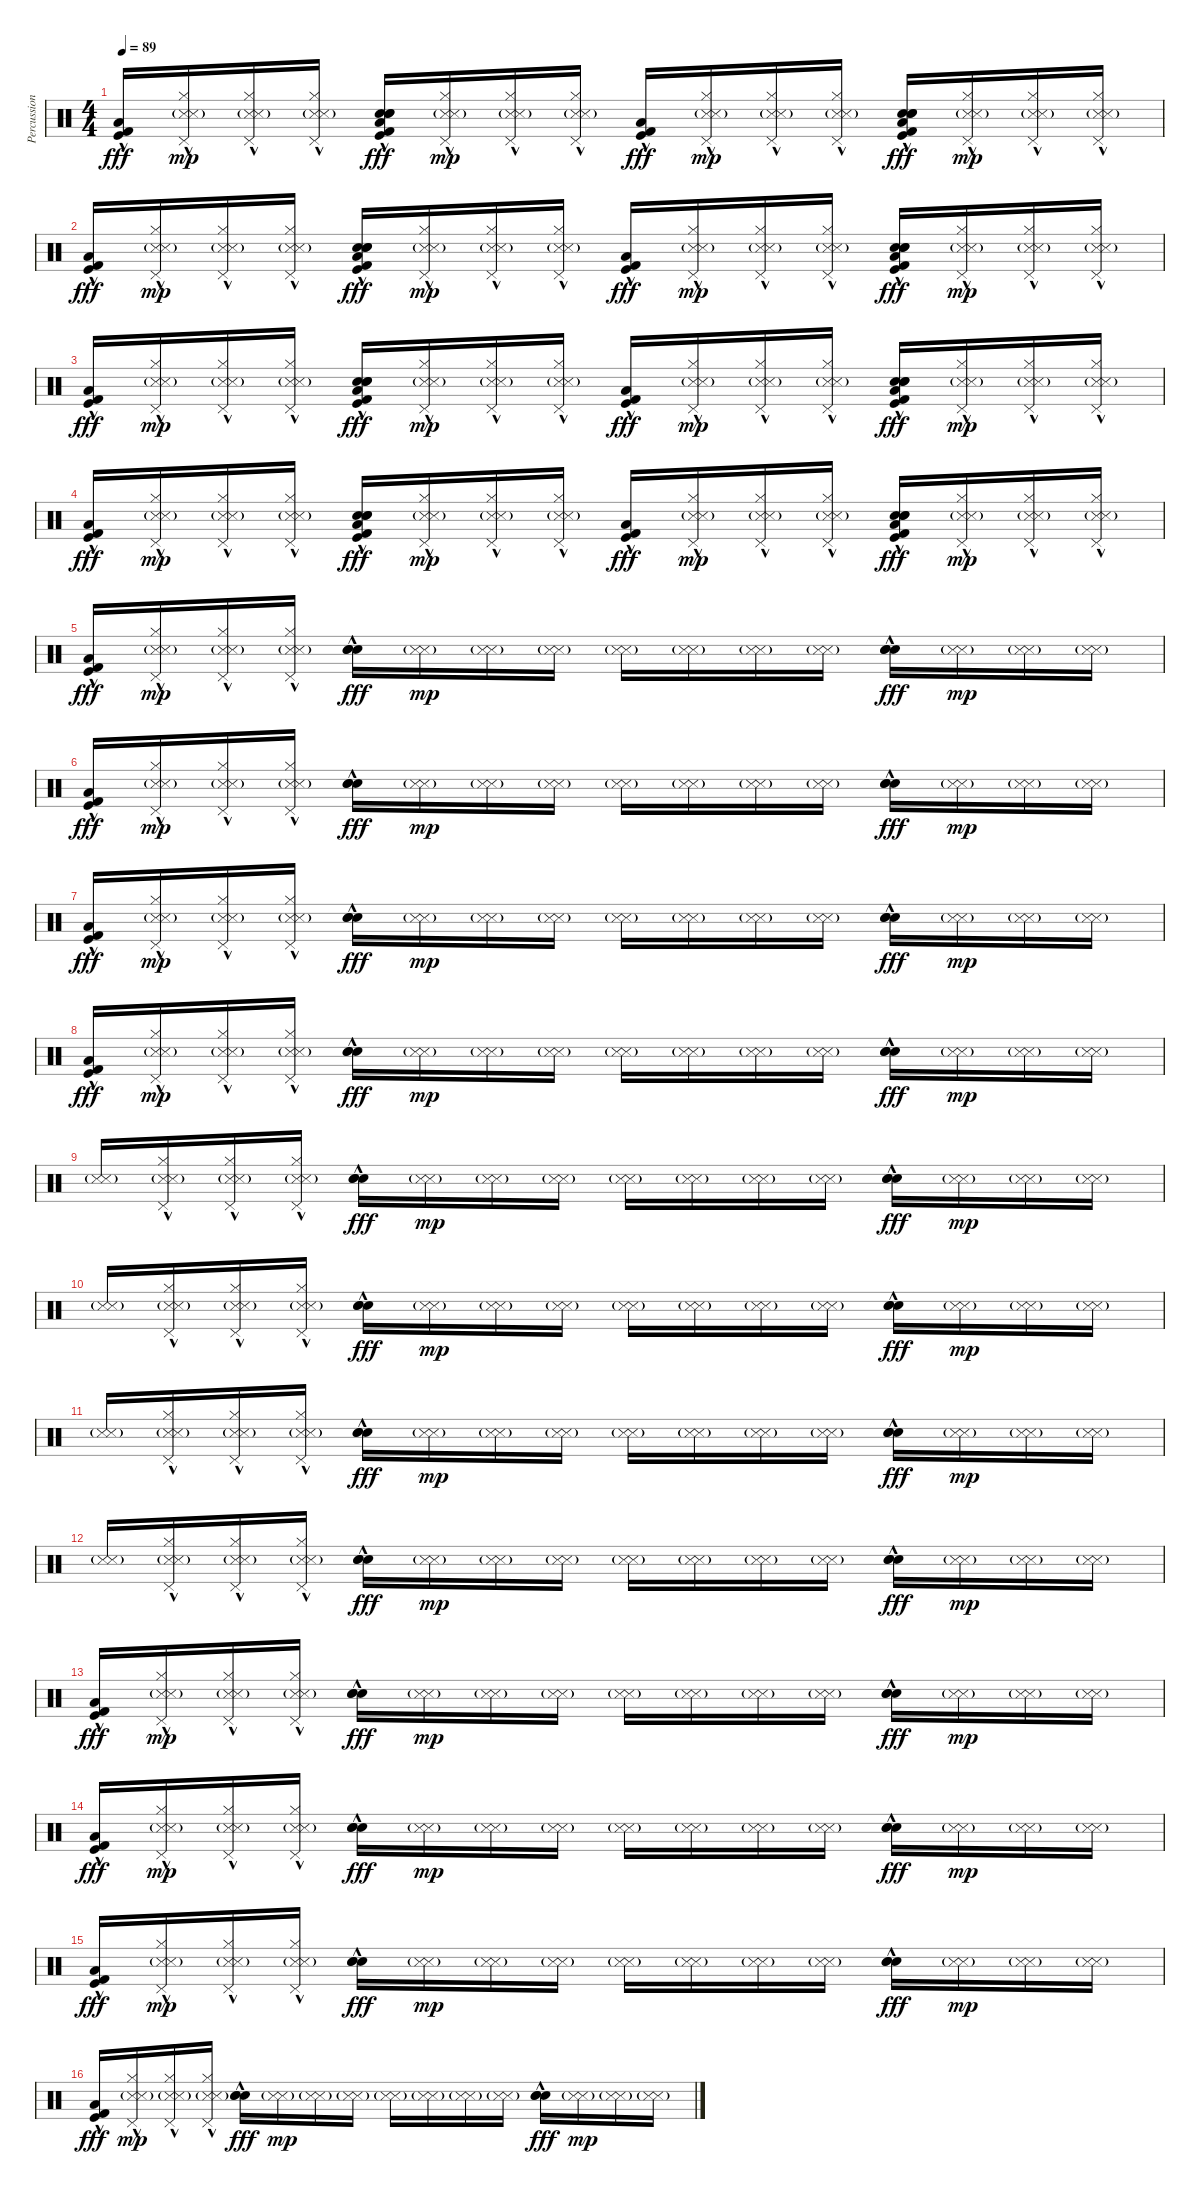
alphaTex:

\track ("Percussion" "Percussion") {instrument percussion}
\staff {score}
\articulation defaults
\ts (4 4)
\tempo 89
\clef neutral
\ks c
("Kick (hit) 2"{hac} "Kick (hit)"{hac} "Low Floor Tom (hit)"{hac}).16{dy fff} ("Pedal Hi-Hat (hit)"{hac} "Hi-Hat (closed)" "Snare (side stick) 3"{g} "Metronome (hit)"{g}).16{dy mp} ("Pedal Hi-Hat (hit)"{hac} "Hi-Hat (closed)" "Snare (side stick) 3"{g} "Metronome (hit)"{g}).16 ("Pedal Hi-Hat (hit)"{hac} "Hi-Hat (closed)" "Snare (side stick) 3"{g} "Metronome (hit)"{g}).16 ("Hand Clap (hit)"{hac} "Hand Clap (hit)"{hac} "Hand Clap (hit)"{hac} "Low Floor Tom (hit)"{hac} "Kick (hit)"{hac} "Kick (hit) 2"{hac}).16{dy fff} ("Pedal Hi-Hat (hit)"{hac} "Hi-Hat (closed)"{hac} "Snare (side stick) 3"{g} "Metronome (hit)"{g}).16{dy mp} ("Pedal Hi-Hat (hit)"{hac} "Hi-Hat (closed)"{hac} "Snare (side stick) 3"{g} "Metronome (hit)"{g}).16 ("Pedal Hi-Hat (hit)"{hac} "Hi-Hat (closed)"{hac} "Snare (side stick) 3"{g} "Metronome (hit)"{g}).16 ("Kick (hit) 2"{hac} "Kick (hit)"{hac} "Low Floor Tom (hit)"{hac}).16{dy fff} ("Pedal Hi-Hat (hit)"{hac} "Hi-Hat (closed)" "Snare (side stick) 3"{g} "Metronome (hit)"{g}).16{dy mp} ("Pedal Hi-Hat (hit)"{hac} "Hi-Hat (closed)" "Snare (side stick) 3"{g} "Metronome (hit)"{g}).16 ("Pedal Hi-Hat (hit)"{hac} "Hi-Hat (closed)" "Snare (side stick) 3"{g} "Metronome (hit)"{g}).16 ("Hand Clap (hit)"{hac} "Hand Clap (hit)"{hac} "Hand Clap (hit)"{hac} "Low Floor Tom (hit)"{hac} "Kick (hit)"{hac} "Kick (hit) 2"{hac}).16{dy fff} ("Pedal Hi-Hat (hit)"{hac} "Hi-Hat (closed)"{hac} "Snare (side stick) 3"{g} "Metronome (hit)"{g}).16{dy mp} ("Pedal Hi-Hat (hit)"{hac} "Hi-Hat (closed)"{hac} "Snare (side stick) 3"{g} "Metronome (hit)"{g}).16 ("Pedal Hi-Hat (hit)"{hac} "Hi-Hat (closed)"{hac} "Snare (side stick) 3"{g} "Metronome (hit)"{g}).16 |
("Kick (hit) 2"{hac} "Kick (hit)"{hac} "Low Floor Tom (hit)"{hac}).16{dy fff} ("Pedal Hi-Hat (hit)"{hac} "Hi-Hat (closed)" "Snare (side stick) 3"{g} "Metronome (hit)"{g}).16{dy mp} ("Pedal Hi-Hat (hit)"{hac} "Hi-Hat (closed)" "Snare (side stick) 3"{g} "Metronome (hit)"{g}).16 ("Pedal Hi-Hat (hit)"{hac} "Hi-Hat (closed)" "Snare (side stick) 3"{g} "Metronome (hit)"{g}).16 ("Hand Clap (hit)"{hac} "Hand Clap (hit)"{hac} "Hand Clap (hit)"{hac} "Low Floor Tom (hit)"{hac} "Kick (hit)"{hac} "Kick (hit) 2"{hac}).16{dy fff} ("Pedal Hi-Hat (hit)"{hac} "Hi-Hat (closed)"{hac} "Snare (side stick) 3"{g} "Metronome (hit)"{g}).16{dy mp} ("Pedal Hi-Hat (hit)"{hac} "Hi-Hat (closed)"{hac} "Snare (side stick) 3"{g} "Metronome (hit)"{g}).16 ("Pedal Hi-Hat (hit)"{hac} "Hi-Hat (closed)"{hac} "Snare (side stick) 3"{g} "Metronome (hit)"{g}).16 ("Kick (hit) 2"{hac} "Kick (hit)"{hac} "Low Floor Tom (hit)"{hac}).16{dy fff} ("Pedal Hi-Hat (hit)"{hac} "Hi-Hat (closed)" "Snare (side stick) 3"{g} "Metronome (hit)"{g}).16{dy mp} ("Pedal Hi-Hat (hit)"{hac} "Hi-Hat (closed)" "Snare (side stick) 3"{g} "Metronome (hit)"{g}).16 ("Pedal Hi-Hat (hit)"{hac} "Hi-Hat (closed)" "Snare (side stick) 3"{g} "Metronome (hit)"{g}).16 ("Hand Clap (hit)"{hac} "Hand Clap (hit)"{hac} "Hand Clap (hit)"{hac} "Low Floor Tom (hit)"{hac} "Kick (hit)"{hac} "Kick (hit) 2"{hac}).16{dy fff} ("Pedal Hi-Hat (hit)"{hac} "Hi-Hat (closed)"{hac} "Snare (side stick) 3"{g} "Metronome (hit)"{g}).16{dy mp} ("Pedal Hi-Hat (hit)"{hac} "Hi-Hat (closed)"{hac} "Snare (side stick) 3"{g} "Metronome (hit)"{g}).16 ("Pedal Hi-Hat (hit)"{hac} "Hi-Hat (closed)"{hac} "Snare (side stick) 3"{g} "Metronome (hit)"{g}).16 |
("Kick (hit) 2"{hac} "Kick (hit)"{hac} "Low Floor Tom (hit)"{hac}).16{dy fff} ("Pedal Hi-Hat (hit)"{hac} "Hi-Hat (closed)" "Snare (side stick) 3"{g} "Metronome (hit)"{g}).16{dy mp} ("Pedal Hi-Hat (hit)"{hac} "Hi-Hat (closed)" "Snare (side stick) 3"{g} "Metronome (hit)"{g}).16 ("Pedal Hi-Hat (hit)"{hac} "Hi-Hat (closed)" "Snare (side stick) 3"{g} "Metronome (hit)"{g}).16 ("Hand Clap (hit)"{hac} "Hand Clap (hit)"{hac} "Hand Clap (hit)"{hac} "Low Floor Tom (hit)"{hac} "Kick (hit)"{hac} "Kick (hit) 2"{hac}).16{dy fff} ("Pedal Hi-Hat (hit)"{hac} "Hi-Hat (closed)"{hac} "Snare (side stick) 3"{g} "Metronome (hit)"{g}).16{dy mp} ("Pedal Hi-Hat (hit)"{hac} "Hi-Hat (closed)"{hac} "Snare (side stick) 3"{g} "Metronome (hit)"{g}).16 ("Pedal Hi-Hat (hit)"{hac} "Hi-Hat (closed)"{hac} "Snare (side stick) 3"{g} "Metronome (hit)"{g}).16 ("Kick (hit) 2"{hac} "Kick (hit)"{hac} "Low Floor Tom (hit)"{hac}).16{dy fff} ("Pedal Hi-Hat (hit)"{hac} "Hi-Hat (closed)" "Snare (side stick) 3"{g} "Metronome (hit)"{g}).16{dy mp} ("Pedal Hi-Hat (hit)"{hac} "Hi-Hat (closed)" "Snare (side stick) 3"{g} "Metronome (hit)"{g}).16 ("Pedal Hi-Hat (hit)"{hac} "Hi-Hat (closed)" "Snare (side stick) 3"{g} "Metronome (hit)"{g}).16 ("Hand Clap (hit)"{hac} "Hand Clap (hit)"{hac} "Hand Clap (hit)"{hac} "Low Floor Tom (hit)"{hac} "Kick (hit)"{hac} "Kick (hit) 2"{hac}).16{dy fff} ("Pedal Hi-Hat (hit)"{hac} "Hi-Hat (closed)"{hac} "Snare (side stick) 3"{g} "Metronome (hit)"{g}).16{dy mp} ("Pedal Hi-Hat (hit)"{hac} "Hi-Hat (closed)"{hac} "Snare (side stick) 3"{g} "Metronome (hit)"{g}).16 ("Pedal Hi-Hat (hit)"{hac} "Hi-Hat (closed)"{hac} "Snare (side stick) 3"{g} "Metronome (hit)"{g}).16 |
("Kick (hit) 2"{hac} "Kick (hit)"{hac} "Low Floor Tom (hit)"{hac}).16{dy fff} ("Pedal Hi-Hat (hit)"{hac} "Hi-Hat (closed)" "Snare (side stick) 3"{g} "Metronome (hit)"{g}).16{dy mp} ("Pedal Hi-Hat (hit)"{hac} "Hi-Hat (closed)" "Snare (side stick) 3"{g} "Metronome (hit)"{g}).16 ("Pedal Hi-Hat (hit)"{hac} "Hi-Hat (closed)" "Snare (side stick) 3"{g} "Metronome (hit)"{g}).16 ("Hand Clap (hit)"{hac} "Hand Clap (hit)"{hac} "Hand Clap (hit)"{hac} "Low Floor Tom (hit)"{hac} "Kick (hit)"{hac} "Kick (hit) 2"{hac}).16{dy fff} ("Pedal Hi-Hat (hit)"{hac} "Hi-Hat (closed)"{hac} "Snare (side stick) 3"{g} "Metronome (hit)"{g}).16{dy mp} ("Pedal Hi-Hat (hit)"{hac} "Hi-Hat (closed)"{hac} "Snare (side stick) 3"{g} "Metronome (hit)"{g}).16 ("Pedal Hi-Hat (hit)"{hac} "Hi-Hat (closed)"{hac} "Snare (side stick) 3"{g} "Metronome (hit)"{g}).16 ("Kick (hit) 2"{hac} "Kick (hit)"{hac} "Low Floor Tom (hit)"{hac}).16{dy fff} ("Pedal Hi-Hat (hit)"{hac} "Hi-Hat (closed)" "Snare (side stick) 3"{g} "Metronome (hit)"{g}).16{dy mp} ("Pedal Hi-Hat (hit)"{hac} "Hi-Hat (closed)" "Snare (side stick) 3"{g} "Metronome (hit)"{g}).16 ("Pedal Hi-Hat (hit)"{hac} "Hi-Hat (closed)" "Snare (side stick) 3"{g} "Metronome (hit)"{g}).16 ("Hand Clap (hit)"{hac} "Hand Clap (hit)"{hac} "Hand Clap (hit)"{hac} "Low Floor Tom (hit)"{hac} "Kick (hit)"{hac} "Kick (hit) 2"{hac}).16{dy fff} ("Pedal Hi-Hat (hit)"{hac} "Hi-Hat (closed)"{hac} "Snare (side stick) 3"{g} "Metronome (hit)"{g}).16{dy mp} ("Pedal Hi-Hat (hit)"{hac} "Hi-Hat (closed)"{hac} "Snare (side stick) 3"{g} "Metronome (hit)"{g}).16 ("Pedal Hi-Hat (hit)"{hac} "Hi-Hat (closed)"{hac} "Snare (side stick) 3"{g} "Metronome (hit)"{g}).16 |
("Kick (hit) 2"{hac} "Kick (hit)"{hac} "Low Floor Tom (hit)"{hac}).16{dy fff} ("Pedal Hi-Hat (hit)"{hac} "Hi-Hat (closed)" "Snare (side stick) 3"{g} "Metronome (hit)"{g}).16{dy mp} ("Pedal Hi-Hat (hit)"{hac} "Hi-Hat (closed)" "Snare (side stick) 3"{g} "Metronome (hit)"{g}).16 ("Pedal Hi-Hat (hit)"{hac} "Hi-Hat (closed)" "Snare (side stick) 3"{g} "Metronome (hit)"{g}).16 ("Hand Clap (hit)"{hac} "Hand Clap (hit)"{hac} "Hand Clap (hit)"{hac}).16{dy fff} ("Snare (side stick) 3"{g} "Metronome (hit)"{g}).16{dy mp} ("Snare (side stick) 3"{g} "Metronome (hit)"{g}).16 ("Snare (side stick) 3"{g} "Metronome (hit)"{g}).16 ("Snare (side stick) 3"{g} "Metronome (hit)"{g}).16 ("Snare (side stick) 3"{g} "Metronome (hit)"{g}).16 ("Snare (side stick) 3"{g} "Metronome (hit)"{g}).16 ("Snare (side stick) 3"{g} "Metronome (hit)"{g}).16 ("Hand Clap (hit)"{hac} "Hand Clap (hit)"{hac} "Hand Clap (hit)"{hac}).16{dy fff} ("Snare (side stick) 3"{g} "Metronome (hit)"{g}).16{dy mp} ("Snare (side stick) 3"{g} "Metronome (hit)"{g}).16 ("Snare (side stick) 3"{g} "Metronome (hit)"{g}).16 |
("Kick (hit) 2"{hac} "Kick (hit)"{hac} "Low Floor Tom (hit)"{hac}).16{dy fff} ("Pedal Hi-Hat (hit)"{hac} "Hi-Hat (closed)" "Snare (side stick) 3"{g} "Metronome (hit)"{g}).16{dy mp} ("Pedal Hi-Hat (hit)"{hac} "Hi-Hat (closed)" "Snare (side stick) 3"{g} "Metronome (hit)"{g}).16 ("Pedal Hi-Hat (hit)"{hac} "Hi-Hat (closed)" "Snare (side stick) 3"{g} "Metronome (hit)"{g}).16 ("Hand Clap (hit)"{hac} "Hand Clap (hit)"{hac} "Hand Clap (hit)"{hac}).16{dy fff} ("Snare (side stick) 3"{g} "Metronome (hit)"{g}).16{dy mp} ("Snare (side stick) 3"{g} "Metronome (hit)"{g}).16 ("Snare (side stick) 3"{g} "Metronome (hit)"{g}).16 ("Snare (side stick) 3"{g} "Metronome (hit)"{g}).16 ("Snare (side stick) 3"{g} "Metronome (hit)"{g}).16 ("Snare (side stick) 3"{g} "Metronome (hit)"{g}).16 ("Snare (side stick) 3"{g} "Metronome (hit)"{g}).16 ("Hand Clap (hit)"{hac} "Hand Clap (hit)"{hac} "Hand Clap (hit)"{hac}).16{dy fff} ("Snare (side stick) 3"{g} "Metronome (hit)"{g}).16{dy mp} ("Snare (side stick) 3"{g} "Metronome (hit)"{g}).16 ("Snare (side stick) 3"{g} "Metronome (hit)"{g}).16 |
("Kick (hit) 2"{hac} "Kick (hit)"{hac} "Low Floor Tom (hit)"{hac}).16{dy fff} ("Pedal Hi-Hat (hit)"{hac} "Hi-Hat (closed)" "Snare (side stick) 3"{g} "Metronome (hit)"{g}).16{dy mp} ("Pedal Hi-Hat (hit)"{hac} "Hi-Hat (closed)" "Snare (side stick) 3"{g} "Metronome (hit)"{g}).16 ("Pedal Hi-Hat (hit)"{hac} "Hi-Hat (closed)" "Snare (side stick) 3"{g} "Metronome (hit)"{g}).16 ("Hand Clap (hit)"{hac} "Hand Clap (hit)"{hac} "Hand Clap (hit)"{hac}).16{dy fff} ("Snare (side stick) 3"{g} "Metronome (hit)"{g}).16{dy mp} ("Snare (side stick) 3"{g} "Metronome (hit)"{g}).16 ("Snare (side stick) 3"{g} "Metronome (hit)"{g}).16 ("Snare (side stick) 3"{g} "Metronome (hit)"{g}).16 ("Snare (side stick) 3"{g} "Metronome (hit)"{g}).16 ("Snare (side stick) 3"{g} "Metronome (hit)"{g}).16 ("Snare (side stick) 3"{g} "Metronome (hit)"{g}).16 ("Hand Clap (hit)"{hac} "Hand Clap (hit)"{hac} "Hand Clap (hit)"{hac}).16{dy fff} ("Snare (side stick) 3"{g} "Metronome (hit)"{g}).16{dy mp} ("Snare (side stick) 3"{g} "Metronome (hit)"{g}).16 ("Snare (side stick) 3"{g} "Metronome (hit)"{g}).16 |
("Kick (hit) 2"{hac} "Kick (hit)"{hac} "Low Floor Tom (hit)"{hac}).16{dy fff} ("Pedal Hi-Hat (hit)"{hac} "Hi-Hat (closed)" "Snare (side stick) 3"{g} "Metronome (hit)"{g}).16{dy mp} ("Pedal Hi-Hat (hit)"{hac} "Hi-Hat (closed)" "Snare (side stick) 3"{g} "Metronome (hit)"{g}).16 ("Pedal Hi-Hat (hit)"{hac} "Hi-Hat (closed)" "Snare (side stick) 3"{g} "Metronome (hit)"{g}).16 ("Hand Clap (hit)"{hac} "Hand Clap (hit)"{hac} "Hand Clap (hit)"{hac}).16{dy fff} ("Snare (side stick) 3"{g} "Metronome (hit)"{g}).16{dy mp} ("Snare (side stick) 3"{g} "Metronome (hit)"{g}).16 ("Snare (side stick) 3"{g} "Metronome (hit)"{g}).16 ("Snare (side stick) 3"{g} "Metronome (hit)"{g}).16 ("Snare (side stick) 3"{g} "Metronome (hit)"{g}).16 ("Snare (side stick) 3"{g} "Metronome (hit)"{g}).16 ("Snare (side stick) 3"{g} "Metronome (hit)"{g}).16 ("Hand Clap (hit)"{hac} "Hand Clap (hit)"{hac} "Hand Clap (hit)"{hac}).16{dy fff} ("Snare (side stick) 3"{g} "Metronome (hit)"{g}).16{dy mp} ("Snare (side stick) 3"{g} "Metronome (hit)"{g}).16 ("Snare (side stick) 3"{g} "Metronome (hit)"{g}).16 |
("Snare (side stick) 3"{g} "Metronome (hit)"{g}).16 ("Pedal Hi-Hat (hit)"{hac} "Hi-Hat (closed)" "Snare (side stick) 3"{g} "Metronome (hit)"{g}).16 ("Pedal Hi-Hat (hit)"{hac} "Hi-Hat (closed)" "Snare (side stick) 3"{g} "Metronome (hit)"{g}).16 ("Pedal Hi-Hat (hit)"{hac} "Hi-Hat (closed)" "Snare (side stick) 3"{g} "Metronome (hit)"{g}).16 ("Hand Clap (hit)"{hac} "Hand Clap (hit)"{hac} "Hand Clap (hit)"{hac}).16{dy fff} ("Snare (side stick) 3"{g} "Metronome (hit)"{g}).16{dy mp} ("Snare (side stick) 3"{g} "Metronome (hit)"{g}).16 ("Snare (side stick) 3"{g} "Metronome (hit)"{g}).16 ("Snare (side stick) 3"{g} "Metronome (hit)"{g}).16 ("Snare (side stick) 3"{g} "Metronome (hit)"{g}).16 ("Snare (side stick) 3"{g} "Metronome (hit)"{g}).16 ("Snare (side stick) 3"{g} "Metronome (hit)"{g}).16 ("Hand Clap (hit)"{hac} "Hand Clap (hit)"{hac} "Hand Clap (hit)"{hac}).16{dy fff} ("Snare (side stick) 3"{g} "Metronome (hit)"{g}).16{dy mp} ("Snare (side stick) 3"{g} "Metronome (hit)"{g}).16 ("Snare (side stick) 3"{g} "Metronome (hit)"{g}).16 |
("Snare (side stick) 3"{g} "Metronome (hit)"{g}).16 ("Pedal Hi-Hat (hit)"{hac} "Hi-Hat (closed)" "Snare (side stick) 3"{g} "Metronome (hit)"{g}).16 ("Pedal Hi-Hat (hit)"{hac} "Hi-Hat (closed)" "Snare (side stick) 3"{g} "Metronome (hit)"{g}).16 ("Pedal Hi-Hat (hit)"{hac} "Hi-Hat (closed)" "Snare (side stick) 3"{g} "Metronome (hit)"{g}).16 ("Hand Clap (hit)"{hac} "Hand Clap (hit)"{hac} "Hand Clap (hit)"{hac}).16{dy fff} ("Snare (side stick) 3"{g} "Metronome (hit)"{g}).16{dy mp} ("Snare (side stick) 3"{g} "Metronome (hit)"{g}).16 ("Snare (side stick) 3"{g} "Metronome (hit)"{g}).16 ("Snare (side stick) 3"{g} "Metronome (hit)"{g}).16 ("Snare (side stick) 3"{g} "Metronome (hit)"{g}).16 ("Snare (side stick) 3"{g} "Metronome (hit)"{g}).16 ("Snare (side stick) 3"{g} "Metronome (hit)"{g}).16 ("Hand Clap (hit)"{hac} "Hand Clap (hit)"{hac} "Hand Clap (hit)"{hac}).16{dy fff} ("Snare (side stick) 3"{g} "Metronome (hit)"{g}).16{dy mp} ("Snare (side stick) 3"{g} "Metronome (hit)"{g}).16 ("Snare (side stick) 3"{g} "Metronome (hit)"{g}).16 |
("Snare (side stick) 3"{g} "Metronome (hit)"{g}).16 ("Pedal Hi-Hat (hit)"{hac} "Hi-Hat (closed)" "Snare (side stick) 3"{g} "Metronome (hit)"{g}).16 ("Pedal Hi-Hat (hit)"{hac} "Hi-Hat (closed)" "Snare (side stick) 3"{g} "Metronome (hit)"{g}).16 ("Pedal Hi-Hat (hit)"{hac} "Hi-Hat (closed)" "Snare (side stick) 3"{g} "Metronome (hit)"{g}).16 ("Hand Clap (hit)"{hac} "Hand Clap (hit)"{hac} "Hand Clap (hit)"{hac}).16{dy fff} ("Snare (side stick) 3"{g} "Metronome (hit)"{g}).16{dy mp} ("Snare (side stick) 3"{g} "Metronome (hit)"{g}).16 ("Snare (side stick) 3"{g} "Metronome (hit)"{g}).16 ("Snare (side stick) 3"{g} "Metronome (hit)"{g}).16 ("Snare (side stick) 3"{g} "Metronome (hit)"{g}).16 ("Snare (side stick) 3"{g} "Metronome (hit)"{g}).16 ("Snare (side stick) 3"{g} "Metronome (hit)"{g}).16 ("Hand Clap (hit)"{hac} "Hand Clap (hit)"{hac} "Hand Clap (hit)"{hac}).16{dy fff} ("Snare (side stick) 3"{g} "Metronome (hit)"{g}).16{dy mp} ("Snare (side stick) 3"{g} "Metronome (hit)"{g}).16 ("Snare (side stick) 3"{g} "Metronome (hit)"{g}).16 |
("Snare (side stick) 3"{g} "Metronome (hit)"{g}).16 ("Pedal Hi-Hat (hit)"{hac} "Hi-Hat (closed)" "Snare (side stick) 3"{g} "Metronome (hit)"{g}).16 ("Pedal Hi-Hat (hit)"{hac} "Hi-Hat (closed)" "Snare (side stick) 3"{g} "Metronome (hit)"{g}).16 ("Pedal Hi-Hat (hit)"{hac} "Hi-Hat (closed)" "Snare (side stick) 3"{g} "Metronome (hit)"{g}).16 ("Hand Clap (hit)"{hac} "Hand Clap (hit)"{hac} "Hand Clap (hit)"{hac}).16{dy fff} ("Snare (side stick) 3"{g} "Metronome (hit)"{g}).16{dy mp} ("Snare (side stick) 3"{g} "Metronome (hit)"{g}).16 ("Snare (side stick) 3"{g} "Metronome (hit)"{g}).16 ("Snare (side stick) 3"{g} "Metronome (hit)"{g}).16 ("Snare (side stick) 3"{g} "Metronome (hit)"{g}).16 ("Snare (side stick) 3"{g} "Metronome (hit)"{g}).16 ("Snare (side stick) 3"{g} "Metronome (hit)"{g}).16 ("Hand Clap (hit)"{hac} "Hand Clap (hit)"{hac} "Hand Clap (hit)"{hac}).16{dy fff} ("Snare (side stick) 3"{g} "Metronome (hit)"{g}).16{dy mp} ("Snare (side stick) 3"{g} "Metronome (hit)"{g}).16 ("Snare (side stick) 3"{g} "Metronome (hit)"{g}).16 |
("Kick (hit) 2"{hac} "Kick (hit)"{hac} "Low Floor Tom (hit)"{hac}).16{dy fff} ("Pedal Hi-Hat (hit)"{hac} "Hi-Hat (closed)" "Snare (side stick) 3"{g} "Metronome (hit)"{g}).16{dy mp} ("Pedal Hi-Hat (hit)"{hac} "Hi-Hat (closed)" "Snare (side stick) 3"{g} "Metronome (hit)"{g}).16 ("Pedal Hi-Hat (hit)"{hac} "Hi-Hat (closed)" "Snare (side stick) 3"{g} "Metronome (hit)"{g}).16 ("Hand Clap (hit)"{hac} "Hand Clap (hit)"{hac} "Hand Clap (hit)"{hac}).16{dy fff} ("Snare (side stick) 3"{g} "Metronome (hit)"{g}).16{dy mp} ("Snare (side stick) 3"{g} "Metronome (hit)"{g}).16 ("Snare (side stick) 3"{g} "Metronome (hit)"{g}).16 ("Snare (side stick) 3"{g} "Metronome (hit)"{g}).16 ("Snare (side stick) 3"{g} "Metronome (hit)"{g}).16 ("Snare (side stick) 3"{g} "Metronome (hit)"{g}).16 ("Snare (side stick) 3"{g} "Metronome (hit)"{g}).16 ("Hand Clap (hit)"{hac} "Hand Clap (hit)"{hac} "Hand Clap (hit)"{hac}).16{dy fff} ("Snare (side stick) 3"{g} "Metronome (hit)"{g}).16{dy mp} ("Snare (side stick) 3"{g} "Metronome (hit)"{g}).16 ("Snare (side stick) 3"{g} "Metronome (hit)"{g}).16 |
("Kick (hit) 2"{hac} "Kick (hit)"{hac} "Low Floor Tom (hit)"{hac}).16{dy fff} ("Pedal Hi-Hat (hit)"{hac} "Hi-Hat (closed)" "Snare (side stick) 3"{g} "Metronome (hit)"{g}).16{dy mp} ("Pedal Hi-Hat (hit)"{hac} "Hi-Hat (closed)" "Snare (side stick) 3"{g} "Metronome (hit)"{g}).16 ("Pedal Hi-Hat (hit)"{hac} "Hi-Hat (closed)" "Snare (side stick) 3"{g} "Metronome (hit)"{g}).16 ("Hand Clap (hit)"{hac} "Hand Clap (hit)"{hac} "Hand Clap (hit)"{hac}).16{dy fff} ("Snare (side stick) 3"{g} "Metronome (hit)"{g}).16{dy mp} ("Snare (side stick) 3"{g} "Metronome (hit)"{g}).16 ("Snare (side stick) 3"{g} "Metronome (hit)"{g}).16 ("Snare (side stick) 3"{g} "Metronome (hit)"{g}).16 ("Snare (side stick) 3"{g} "Metronome (hit)"{g}).16 ("Snare (side stick) 3"{g} "Metronome (hit)"{g}).16 ("Snare (side stick) 3"{g} "Metronome (hit)"{g}).16 ("Hand Clap (hit)"{hac} "Hand Clap (hit)"{hac} "Hand Clap (hit)"{hac}).16{dy fff} ("Snare (side stick) 3"{g} "Metronome (hit)"{g}).16{dy mp} ("Snare (side stick) 3"{g} "Metronome (hit)"{g}).16 ("Snare (side stick) 3"{g} "Metronome (hit)"{g}).16 |
("Kick (hit) 2"{hac} "Kick (hit)"{hac} "Low Floor Tom (hit)"{hac}).16{dy fff} ("Pedal Hi-Hat (hit)"{hac} "Hi-Hat (closed)" "Snare (side stick) 3"{g} "Metronome (hit)"{g}).16{dy mp} ("Pedal Hi-Hat (hit)"{hac} "Hi-Hat (closed)" "Snare (side stick) 3"{g} "Metronome (hit)"{g}).16 ("Pedal Hi-Hat (hit)"{hac} "Hi-Hat (closed)" "Snare (side stick) 3"{g} "Metronome (hit)"{g}).16 ("Hand Clap (hit)"{hac} "Hand Clap (hit)"{hac} "Hand Clap (hit)"{hac}).16{dy fff} ("Snare (side stick) 3"{g} "Metronome (hit)"{g}).16{dy mp} ("Snare (side stick) 3"{g} "Metronome (hit)"{g}).16 ("Snare (side stick) 3"{g} "Metronome (hit)"{g}).16 ("Snare (side stick) 3"{g} "Metronome (hit)"{g}).16 ("Snare (side stick) 3"{g} "Metronome (hit)"{g}).16 ("Snare (side stick) 3"{g} "Metronome (hit)"{g}).16 ("Snare (side stick) 3"{g} "Metronome (hit)"{g}).16 ("Hand Clap (hit)"{hac} "Hand Clap (hit)"{hac} "Hand Clap (hit)"{hac}).16{dy fff} ("Snare (side stick) 3"{g} "Metronome (hit)"{g}).16{dy mp} ("Snare (side stick) 3"{g} "Metronome (hit)"{g}).16 ("Snare (side stick) 3"{g} "Metronome (hit)"{g}).16 |
("Kick (hit) 2"{hac} "Kick (hit)"{hac} "Low Floor Tom (hit)"{hac}).16{dy fff} ("Pedal Hi-Hat (hit)"{hac} "Hi-Hat (closed)" "Snare (side stick) 3"{g} "Metronome (hit)"{g}).16{dy mp} ("Pedal Hi-Hat (hit)"{hac} "Hi-Hat (closed)" "Snare (side stick) 3"{g} "Metronome (hit)"{g}).16 ("Pedal Hi-Hat (hit)"{hac} "Hi-Hat (closed)" "Snare (side stick) 3"{g} "Metronome (hit)"{g}).16 ("Hand Clap (hit)"{hac} "Hand Clap (hit)"{hac} "Hand Clap (hit)"{hac}).16{dy fff} ("Snare (side stick) 3"{g} "Metronome (hit)"{g}).16{dy mp} ("Snare (side stick) 3"{g} "Metronome (hit)"{g}).16 ("Snare (side stick) 3"{g} "Metronome (hit)"{g}).16 ("Snare (side stick) 3"{g} "Metronome (hit)"{g}).16 ("Snare (side stick) 3"{g} "Metronome (hit)"{g}).16 ("Snare (side stick) 3"{g} "Metronome (hit)"{g}).16 ("Snare (side stick) 3"{g} "Metronome (hit)"{g}).16 ("Hand Clap (hit)"{hac} "Hand Clap (hit)"{hac} "Hand Clap (hit)"{hac}).16{dy fff} ("Snare (side stick) 3"{g} "Metronome (hit)"{g}).16{dy mp} ("Snare (side stick) 3"{g} "Metronome (hit)"{g}).16 ("Snare (side stick) 3"{g} "Metronome (hit)"{g}).16
